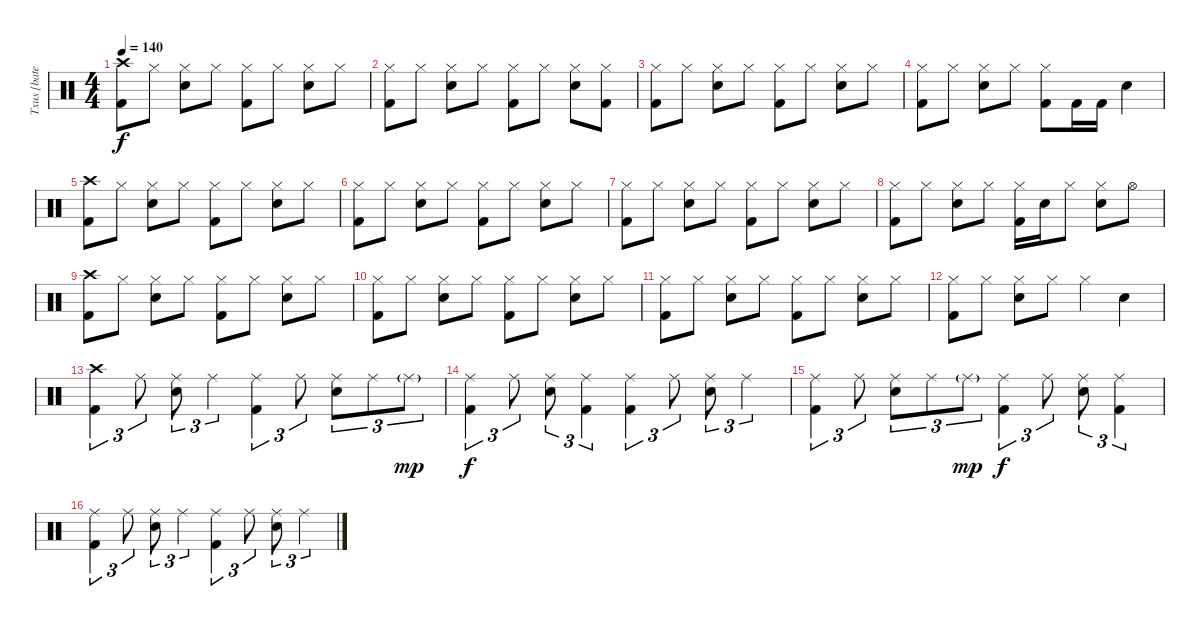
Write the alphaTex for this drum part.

\track ("Txus [bateria]" "Txus [bate") {instrument percussion}
\staff {score}
\articulation defaults
\ts (4 4)
\tempo 140
\clef neutral
\ks c
("Crash high (hit)" "Kick (hit) 2").8{dy f} "Hi-Hat (closed)".8 ("Hi-Hat (closed)" "Snare (hit) 2").8 "Hi-Hat (closed)".8 ("Hi-Hat (closed)" "Kick (hit) 2").8 "Hi-Hat (closed)".8 ("Hi-Hat (closed)" "Snare (hit) 2").8 "Hi-Hat (closed)".8 |
("Hi-Hat (closed)" "Kick (hit) 2").8 "Hi-Hat (closed)".8 ("Hi-Hat (closed)" "Snare (hit) 2").8 "Hi-Hat (closed)".8 ("Hi-Hat (closed)" "Kick (hit) 2").8 "Hi-Hat (closed)".8 ("Hi-Hat (closed)" "Snare (hit) 2").8 ("Hi-Hat (closed)" "Kick (hit) 2").8 |
("Hi-Hat (closed)" "Kick (hit) 2").8 "Hi-Hat (closed)".8 ("Hi-Hat (closed)" "Snare (hit) 2").8 "Hi-Hat (closed)".8 ("Hi-Hat (closed)" "Kick (hit) 2").8 "Hi-Hat (closed)".8 ("Hi-Hat (closed)" "Snare (hit) 2").8 "Hi-Hat (closed)".8 |
("Hi-Hat (closed)" "Kick (hit) 2").8 "Hi-Hat (closed)".8 ("Hi-Hat (closed)" "Snare (hit) 2").8 "Hi-Hat (closed)".8 ("Hi-Hat (closed)" "Kick (hit) 2").8 "Kick (hit) 2".16 "Kick (hit) 2".16 "Snare (hit) 2".4 |
("Crash high (hit)" "Kick (hit) 2").8 "Hi-Hat (closed)".8 ("Hi-Hat (closed)" "Snare (hit) 2").8 "Hi-Hat (closed)".8 ("Hi-Hat (closed)" "Kick (hit) 2").8 "Hi-Hat (closed)".8 ("Hi-Hat (closed)" "Snare (hit) 2").8 "Hi-Hat (closed)".8 |
("Hi-Hat (closed)" "Kick (hit) 2").8 "Hi-Hat (closed)".8 ("Hi-Hat (closed)" "Snare (hit) 2").8 "Hi-Hat (closed)".8 ("Hi-Hat (closed)" "Kick (hit) 2").8 "Hi-Hat (closed)".8 ("Hi-Hat (closed)" "Snare (hit) 2").8 "Hi-Hat (closed)".8 |
("Hi-Hat (closed)" "Kick (hit) 2").8 "Hi-Hat (closed)".8 ("Hi-Hat (closed)" "Snare (hit) 2").8 "Hi-Hat (closed)".8 ("Hi-Hat (closed)" "Kick (hit) 2").8 "Hi-Hat (closed)".8 ("Hi-Hat (closed)" "Snare (hit) 2").8 "Hi-Hat (closed)".8 |
("Hi-Hat (closed)" "Kick (hit) 2").8 "Hi-Hat (closed)".8 ("Hi-Hat (closed)" "Snare (hit) 2").8 "Hi-Hat (closed)".8 ("Hi-Hat (closed)" "Kick (hit) 2").16 "Snare (hit) 2".16 "Hi-Hat (closed)".8 ("Hi-Hat (closed)" "Snare (hit) 2").8 "Hi-Hat (open)".8 |
("Crash high (hit)" "Kick (hit) 2").8 "Hi-Hat (closed)".8 ("Hi-Hat (closed)" "Snare (hit) 2").8 "Hi-Hat (closed)".8 ("Hi-Hat (closed)" "Kick (hit) 2").8 "Hi-Hat (closed)".8 ("Hi-Hat (closed)" "Snare (hit) 2").8 "Hi-Hat (closed)".8 |
("Hi-Hat (closed)" "Kick (hit) 2").8 "Hi-Hat (closed)".8 ("Hi-Hat (closed)" "Snare (hit) 2").8 "Hi-Hat (closed)".8 ("Hi-Hat (closed)" "Kick (hit) 2").8 "Hi-Hat (closed)".8 ("Hi-Hat (closed)" "Snare (hit) 2").8 "Hi-Hat (closed)".8 |
("Hi-Hat (closed)" "Kick (hit) 2").8 "Hi-Hat (closed)".8 ("Hi-Hat (closed)" "Snare (hit) 2").8 "Hi-Hat (closed)".8 ("Hi-Hat (closed)" "Kick (hit) 2").8 "Hi-Hat (closed)".8 ("Hi-Hat (closed)" "Snare (hit) 2").8 "Hi-Hat (closed)".8 |
("Hi-Hat (closed)" "Kick (hit) 2").8 "Hi-Hat (closed)".8 ("Hi-Hat (closed)" "Snare (hit) 2").8 "Hi-Hat (closed)".8 "Hi-Hat (closed)".4 "Snare (hit) 2".4 |
("Crash high (hit)" "Kick (hit) 2").4{tu (3 2)} "Ride (middle)".8{tu (3 2)} ("Ride (middle)" "Snare (hit) 2").8{tu (3 2)} "Ride (middle)".4{tu (3 2)} ("Ride (middle)" "Kick (hit) 2").4{tu (3 2)} "Ride (middle)".8{tu (3 2)} ("Ride (middle)" "Snare (hit) 2").8{tu (3 2)} "Ride (middle)".8{tu (3 2)} "Ride (middle)"{g}.8{tu (3 2) dy mp} |
("Ride (middle)" "Kick (hit) 2").4{tu (3 2) dy f} "Ride (middle)".8{tu (3 2)} ("Ride (middle)" "Snare (hit) 2").8{tu (3 2)} ("Ride (middle)" "Kick (hit) 2").4{tu (3 2)} ("Ride (middle)" "Kick (hit) 2").4{tu (3 2)} "Ride (middle)".8{tu (3 2)} ("Ride (middle)" "Snare (hit) 2").8{tu (3 2)} "Ride (middle)".4{tu (3 2)} |
("Ride (middle)" "Kick (hit) 2").4{tu (3 2)} "Ride (middle)".8{tu (3 2)} ("Ride (middle)" "Snare (hit) 2").8{tu (3 2)} "Ride (middle)".8{tu (3 2)} "Ride (middle)"{g}.8{tu (3 2) dy mp} ("Ride (middle)" "Kick (hit) 2").4{tu (3 2) dy f} "Ride (middle)".8{tu (3 2)} ("Ride (middle)" "Snare (hit) 2").8{tu (3 2)} ("Ride (middle)" "Kick (hit) 2").4{tu (3 2)} |
("Ride (middle)" "Kick (hit) 2").4{tu (3 2)} "Ride (middle)".8{tu (3 2)} ("Ride (middle)" "Snare (hit) 2").8{tu (3 2)} "Ride (middle)".4{tu (3 2)} ("Ride (middle)" "Kick (hit) 2").4{tu (3 2)} "Ride (middle)".8{tu (3 2)} ("Ride (middle)" "Snare (hit) 2").8{tu (3 2)} "Ride (middle)".4{tu (3 2)}
